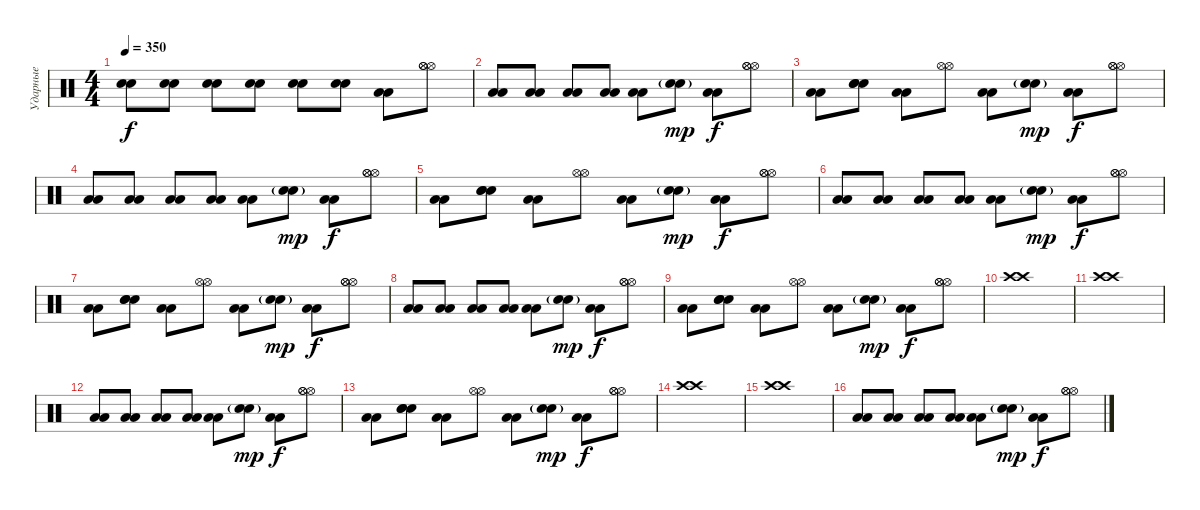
\track ("Ударные" "Ударные") {instrument percussion}
\staff {score}
\articulation defaults
\ts (4 4)
\tempo 350
\clef neutral
\ks c
("Electric Snare (hit)" "Electric Snare (hit)").8{dy f} ("Electric Snare (hit)" "Electric Snare (hit)").8 ("Electric Snare (hit)" "Electric Snare (hit)").8 ("Electric Snare (hit)" "Electric Snare (hit)").8 ("Electric Snare (hit)" "Electric Snare (hit)").8 ("Electric Snare (hit)" "Electric Snare (hit)").8 ("Low Floor Tom (hit)" "Low Floor Tom (hit)").8 ("Hi-Hat (open)" "Hi-Hat (open)" "Hi-Hat (open)").8 |
("Low Floor Tom (hit)" "Low Floor Tom (hit)").8 ("Low Floor Tom (hit)" "Low Floor Tom (hit)").8 ("Low Floor Tom (hit)" "Low Floor Tom (hit)").8 ("Low Floor Tom (hit)" "Low Floor Tom (hit)").8 ("Low Floor Tom (hit)" "Low Floor Tom (hit)").8 ("Electric Snare (hit)"{g} "Electric Snare (hit)"{g}).8{dy mp} ("Low Floor Tom (hit)" "Low Floor Tom (hit)").8{dy f} ("Hi-Hat (open)" "Hi-Hat (open)" "Hi-Hat (open)").8 |
("Low Floor Tom (hit)" "Low Floor Tom (hit)").8 ("Electric Snare (hit)" "Electric Snare (hit)" "Electric Snare (hit)").8 ("Low Floor Tom (hit)" "Low Floor Tom (hit)").8 ("Hi-Hat (open)" "Hi-Hat (open)").8 ("Low Floor Tom (hit)" "Low Floor Tom (hit)").8 ("Electric Snare (hit)"{g} "Electric Snare (hit)"{g}).8{dy mp} ("Low Floor Tom (hit)" "Low Floor Tom (hit)").8{dy f} ("Hi-Hat (open)" "Hi-Hat (open)" "Hi-Hat (open)").8 |
("Low Floor Tom (hit)" "Low Floor Tom (hit)").8 ("Low Floor Tom (hit)" "Low Floor Tom (hit)").8 ("Low Floor Tom (hit)" "Low Floor Tom (hit)").8 ("Low Floor Tom (hit)" "Low Floor Tom (hit)").8 ("Low Floor Tom (hit)" "Low Floor Tom (hit)").8 ("Electric Snare (hit)"{g} "Electric Snare (hit)"{g}).8{dy mp} ("Low Floor Tom (hit)" "Low Floor Tom (hit)").8{dy f} ("Hi-Hat (open)" "Hi-Hat (open)" "Hi-Hat (open)").8 |
("Low Floor Tom (hit)" "Low Floor Tom (hit)").8 ("Electric Snare (hit)" "Electric Snare (hit)" "Electric Snare (hit)").8 ("Low Floor Tom (hit)" "Low Floor Tom (hit)").8 ("Hi-Hat (open)" "Hi-Hat (open)").8 ("Low Floor Tom (hit)" "Low Floor Tom (hit)").8 ("Electric Snare (hit)"{g} "Electric Snare (hit)"{g}).8{dy mp} ("Low Floor Tom (hit)" "Low Floor Tom (hit)").8{dy f} ("Hi-Hat (open)" "Hi-Hat (open)" "Hi-Hat (open)").8 |
("Low Floor Tom (hit)" "Low Floor Tom (hit)").8 ("Low Floor Tom (hit)" "Low Floor Tom (hit)").8 ("Low Floor Tom (hit)" "Low Floor Tom (hit)").8 ("Low Floor Tom (hit)" "Low Floor Tom (hit)").8 ("Low Floor Tom (hit)" "Low Floor Tom (hit)").8 ("Electric Snare (hit)"{g} "Electric Snare (hit)"{g}).8{dy mp} ("Low Floor Tom (hit)" "Low Floor Tom (hit)").8{dy f} ("Hi-Hat (open)" "Hi-Hat (open)" "Hi-Hat (open)").8 |
("Low Floor Tom (hit)" "Low Floor Tom (hit)").8 ("Electric Snare (hit)" "Electric Snare (hit)" "Electric Snare (hit)").8 ("Low Floor Tom (hit)" "Low Floor Tom (hit)").8 ("Hi-Hat (open)" "Hi-Hat (open)").8 ("Low Floor Tom (hit)" "Low Floor Tom (hit)").8 ("Electric Snare (hit)"{g} "Electric Snare (hit)"{g}).8{dy mp} ("Low Floor Tom (hit)" "Low Floor Tom (hit)").8{dy f} ("Hi-Hat (open)" "Hi-Hat (open)" "Hi-Hat (open)").8 |
("Low Floor Tom (hit)" "Low Floor Tom (hit)").8 ("Low Floor Tom (hit)" "Low Floor Tom (hit)").8 ("Low Floor Tom (hit)" "Low Floor Tom (hit)").8 ("Low Floor Tom (hit)" "Low Floor Tom (hit)").8 ("Low Floor Tom (hit)" "Low Floor Tom (hit)").8 ("Electric Snare (hit)"{g} "Electric Snare (hit)"{g}).8{dy mp} ("Low Floor Tom (hit)" "Low Floor Tom (hit)").8{dy f} ("Hi-Hat (open)" "Hi-Hat (open)" "Hi-Hat (open)").8 |
("Low Floor Tom (hit)" "Low Floor Tom (hit)").8 ("Electric Snare (hit)" "Electric Snare (hit)" "Electric Snare (hit)").8 ("Low Floor Tom (hit)" "Low Floor Tom (hit)").8 ("Hi-Hat (open)" "Hi-Hat (open)").8 ("Low Floor Tom (hit)" "Low Floor Tom (hit)").8 ("Electric Snare (hit)"{g} "Electric Snare (hit)"{g}).8{dy mp} ("Low Floor Tom (hit)" "Low Floor Tom (hit)").8{dy f} ("Hi-Hat (open)" "Hi-Hat (open)" "Hi-Hat (open)").8 |
("Crash high (hit)" "Crash high (hit)").1 |
("Crash high (hit)" "Crash high (hit)").1 |
("Low Floor Tom (hit)" "Low Floor Tom (hit)").8 ("Low Floor Tom (hit)" "Low Floor Tom (hit)").8 ("Low Floor Tom (hit)" "Low Floor Tom (hit)").8 ("Low Floor Tom (hit)" "Low Floor Tom (hit)").8 ("Low Floor Tom (hit)" "Low Floor Tom (hit)").8 ("Electric Snare (hit)"{g} "Electric Snare (hit)"{g}).8{dy mp} ("Low Floor Tom (hit)" "Low Floor Tom (hit)").8{dy f} ("Hi-Hat (open)" "Hi-Hat (open)" "Hi-Hat (open)").8 |
("Low Floor Tom (hit)" "Low Floor Tom (hit)").8 ("Electric Snare (hit)" "Electric Snare (hit)" "Electric Snare (hit)").8 ("Low Floor Tom (hit)" "Low Floor Tom (hit)").8 ("Hi-Hat (open)" "Hi-Hat (open)").8 ("Low Floor Tom (hit)" "Low Floor Tom (hit)").8 ("Electric Snare (hit)"{g} "Electric Snare (hit)"{g}).8{dy mp} ("Low Floor Tom (hit)" "Low Floor Tom (hit)").8{dy f} ("Hi-Hat (open)" "Hi-Hat (open)" "Hi-Hat (open)").8 |
("Crash high (hit)" "Crash high (hit)").1 |
("Crash high (hit)" "Crash high (hit)").1 |
("Low Floor Tom (hit)" "Low Floor Tom (hit)").8 ("Low Floor Tom (hit)" "Low Floor Tom (hit)").8 ("Low Floor Tom (hit)" "Low Floor Tom (hit)").8 ("Low Floor Tom (hit)" "Low Floor Tom (hit)").8 ("Low Floor Tom (hit)" "Low Floor Tom (hit)").8 ("Electric Snare (hit)"{g} "Electric Snare (hit)"{g}).8{dy mp} ("Low Floor Tom (hit)" "Low Floor Tom (hit)").8{dy f} ("Hi-Hat (open)" "Hi-Hat (open)" "Hi-Hat (open)").8
